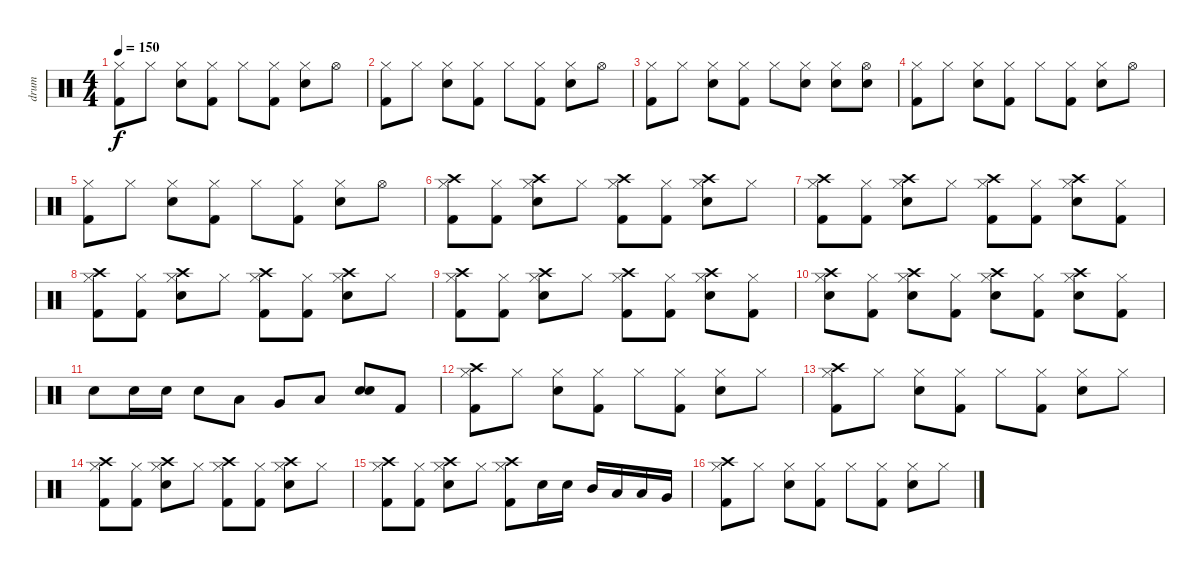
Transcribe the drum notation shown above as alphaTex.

\track ("drum" "drum") {instrument percussion}
\staff {score}
\articulation defaults
\ts (4 4)
\tempo 150
\clef neutral
\ks c
("Hi-Hat (closed)" "Kick (hit) 2").8{dy f} "Hi-Hat (closed)".8 ("Hi-Hat (closed)" "Electric Snare (hit)").8 ("Hi-Hat (closed)" "Kick (hit) 2").8 "Hi-Hat (closed)".8 ("Hi-Hat (closed)" "Kick (hit) 2").8 ("Hi-Hat (closed)" "Electric Snare (hit)").8 "Hi-Hat (open)".8 |
("Hi-Hat (closed)" "Kick (hit) 2").8 "Hi-Hat (closed)".8 ("Hi-Hat (closed)" "Electric Snare (hit)").8 ("Hi-Hat (closed)" "Kick (hit) 2").8 "Hi-Hat (closed)".8 ("Hi-Hat (closed)" "Kick (hit) 2").8 ("Hi-Hat (closed)" "Electric Snare (hit)").8 "Hi-Hat (open)".8 |
("Hi-Hat (closed)" "Kick (hit) 2").8 "Hi-Hat (closed)".8 ("Hi-Hat (closed)" "Electric Snare (hit)").8 ("Hi-Hat (closed)" "Kick (hit) 2").8 "Hi-Hat (closed)".8 ("Hi-Hat (closed)" "Electric Snare (hit)").8 ("Hi-Hat (closed)" "Electric Snare (hit)").8 ("Hi-Hat (open)" "Electric Snare (hit)").8 |
("Hi-Hat (closed)" "Kick (hit) 2").8 "Hi-Hat (closed)".8 ("Hi-Hat (closed)" "Electric Snare (hit)").8 ("Hi-Hat (closed)" "Kick (hit) 2").8 "Hi-Hat (closed)".8 ("Hi-Hat (closed)" "Kick (hit) 2").8 ("Hi-Hat (closed)" "Electric Snare (hit)").8 "Hi-Hat (open)".8 |
("Hi-Hat (closed)" "Kick (hit) 2").8 "Hi-Hat (closed)".8 ("Hi-Hat (closed)" "Electric Snare (hit)").8 ("Hi-Hat (closed)" "Kick (hit) 2").8 "Hi-Hat (closed)".8 ("Hi-Hat (closed)" "Kick (hit) 2").8 ("Hi-Hat (closed)" "Electric Snare (hit)").8 "Hi-Hat (open)".8 |
("Crash high (hit)" "Hi-Hat (closed)" "Kick (hit) 2").8 ("Hi-Hat (closed)" "Kick (hit) 2").8 ("Crash high (hit)" "Hi-Hat (closed)" "Electric Snare (hit)").8 "Hi-Hat (closed)".8 ("Crash high (hit)" "Hi-Hat (closed)" "Kick (hit) 2").8 ("Hi-Hat (closed)" "Kick (hit) 2").8 ("Crash high (hit)" "Hi-Hat (closed)" "Electric Snare (hit)").8 "Hi-Hat (closed)".8 |
("Crash high (hit)" "Hi-Hat (closed)" "Kick (hit) 2").8 ("Hi-Hat (closed)" "Kick (hit) 2").8 ("Crash high (hit)" "Hi-Hat (closed)" "Electric Snare (hit)").8 "Hi-Hat (closed)".8 ("Crash high (hit)" "Hi-Hat (closed)" "Kick (hit) 2").8 ("Hi-Hat (closed)" "Kick (hit) 2").8 ("Crash high (hit)" "Hi-Hat (closed)" "Electric Snare (hit)").8 ("Hi-Hat (closed)" "Kick (hit) 2").8 |
("Crash high (hit)" "Hi-Hat (closed)" "Kick (hit) 2").8 ("Hi-Hat (closed)" "Kick (hit) 2").8 ("Crash high (hit)" "Hi-Hat (closed)" "Electric Snare (hit)").8 "Hi-Hat (closed)".8 ("Crash high (hit)" "Hi-Hat (closed)" "Kick (hit) 2").8 ("Hi-Hat (closed)" "Kick (hit) 2").8 ("Crash high (hit)" "Hi-Hat (closed)" "Electric Snare (hit)").8 "Hi-Hat (closed)".8 |
("Crash high (hit)" "Hi-Hat (closed)" "Kick (hit) 2").8 ("Hi-Hat (closed)" "Kick (hit) 2").8 ("Crash high (hit)" "Hi-Hat (closed)" "Electric Snare (hit)").8 "Hi-Hat (closed)".8 ("Crash high (hit)" "Hi-Hat (closed)" "Kick (hit) 2").8 ("Hi-Hat (closed)" "Kick (hit) 2").8 ("Crash high (hit)" "Hi-Hat (closed)" "Electric Snare (hit)").8 ("Hi-Hat (closed)" "Kick (hit) 2").8 |
("Crash high (hit)" "Hi-Hat (closed)" "Electric Snare (hit)").8 ("Hi-Hat (closed)" "Kick (hit) 2").8 ("Crash high (hit)" "Hi-Hat (closed)" "Electric Snare (hit)").8 ("Hi-Hat (closed)" "Kick (hit) 2").8 ("Crash high (hit)" "Hi-Hat (closed)" "Electric Snare (hit)").8 ("Hi-Hat (closed)" "Kick (hit) 2").8 ("Crash high (hit)" "Hi-Hat (closed)" "Electric Snare (hit)").8 ("Hi-Hat (closed)" "Kick (hit) 2").8 |
"Electric Snare (hit)".8 "Electric Snare (hit)".16 "Electric Snare (hit)".16 "Electric Snare (hit)".8 "Low Tom (hit)".8 "Very Low Tom (hit)".8 "Low Floor Tom (hit)".8 ("Electric Snare (hit)" "Electric Snare (hit)").8 "Kick (hit) 2".8 |
("Crash high (hit)" "Hi-Hat (closed)" "Kick (hit) 2").8 "Hi-Hat (closed)".8 ("Hi-Hat (closed)" "Electric Snare (hit)").8 ("Hi-Hat (closed)" "Kick (hit) 2").8 "Hi-Hat (closed)".8 ("Hi-Hat (closed)" "Kick (hit) 2").8 ("Hi-Hat (closed)" "Electric Snare (hit)").8 "Hi-Hat (closed)".8 |
("Crash high (hit)" "Hi-Hat (closed)" "Kick (hit) 2").8 "Hi-Hat (closed)".8 ("Hi-Hat (closed)" "Electric Snare (hit)").8 ("Hi-Hat (closed)" "Kick (hit) 2").8 "Hi-Hat (closed)".8 ("Hi-Hat (closed)" "Kick (hit) 2").8 ("Hi-Hat (closed)" "Electric Snare (hit)").8 "Hi-Hat (closed)".8 |
("Crash high (hit)" "Hi-Hat (closed)" "Kick (hit) 2").8 ("Hi-Hat (closed)" "Kick (hit) 2").8 ("Crash high (hit)" "Hi-Hat (closed)" "Electric Snare (hit)").8 "Hi-Hat (closed)".8 ("Crash high (hit)" "Hi-Hat (closed)" "Kick (hit) 2").8 ("Hi-Hat (closed)" "Kick (hit) 2").8 ("Crash high (hit)" "Hi-Hat (closed)" "Electric Snare (hit)").8 "Hi-Hat (closed)".8 |
("Crash high (hit)" "Hi-Hat (closed)" "Kick (hit) 2").8 ("Hi-Hat (closed)" "Kick (hit) 2").8 ("Crash high (hit)" "Hi-Hat (closed)" "Electric Snare (hit)").8 "Hi-Hat (closed)".8 ("Crash high (hit)" "Hi-Hat (closed)" "Kick (hit) 2").8 "Electric Snare (hit)".16 "Electric Snare (hit)".16 "Mid Tom (hit)".16 "Low Tom (hit)".16 "Low Tom (hit)".16 "Very Low Tom (hit)".16 |
("Crash high (hit)" "Hi-Hat (closed)" "Kick (hit) 2").8 "Hi-Hat (closed)".8 ("Hi-Hat (closed)" "Electric Snare (hit)").8 ("Hi-Hat (closed)" "Kick (hit) 2").8 "Hi-Hat (closed)".8 ("Hi-Hat (closed)" "Kick (hit) 2").8 ("Hi-Hat (closed)" "Electric Snare (hit)").8 "Hi-Hat (closed)".8
